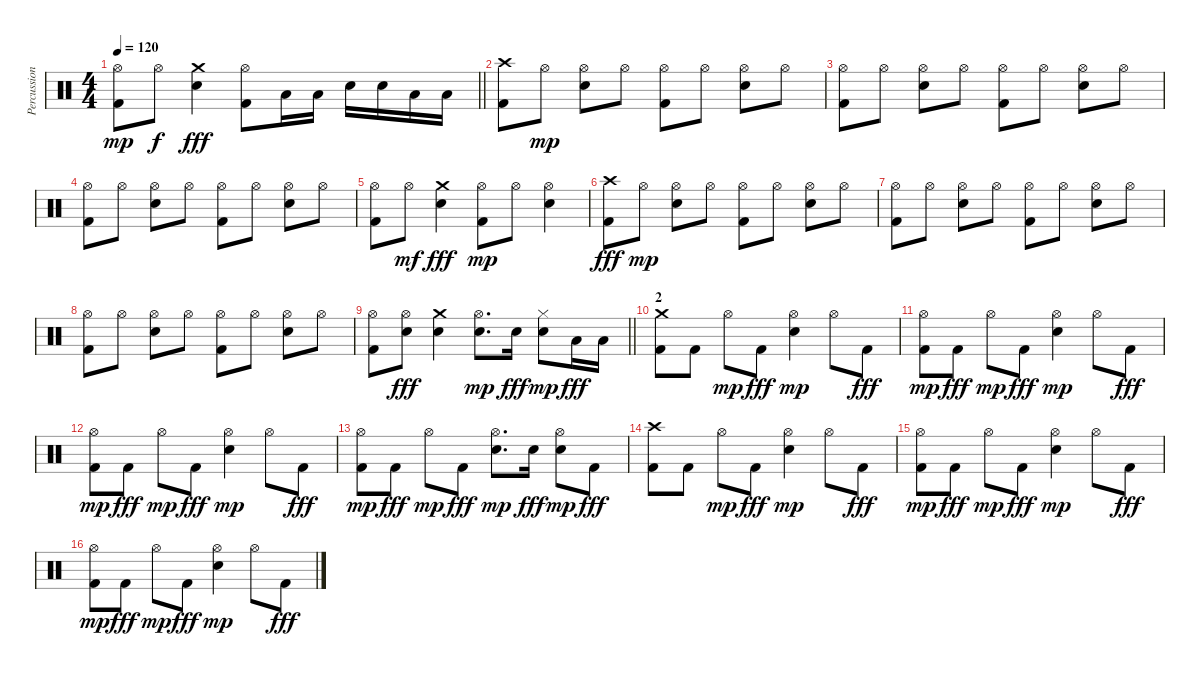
\track ("Percussions" "Percussion") {instrument percussion}
\staff {score}
\articulation defaults
\ts (4 4)
\tempo 120
\clef neutral
\barLineRight lightlight
\ks c
("Kick (hit) 2" "Hi-Hat (open)").8{dy mp} "Hi-Hat (open)".8{dy f} ("Electric Snare (hit)" "Crash medium (hit)").4{dy fff} ("Kick (hit) 2" "Hi-Hat (open)").8 "Low Tom (hit)".16 "Low Tom (hit)".16 "Electric Snare (hit)".16 "Electric Snare (hit)".16 "Low Tom (hit)".16 "Low Tom (hit)".16 |
("Kick (hit) 2" "Crash high (hit)").8 "Hi-Hat (open)".8{dy mp} ("Electric Snare (hit)" "Hi-Hat (open)").8 "Hi-Hat (open)".8 ("Kick (hit) 2" "Hi-Hat (open)").8 "Hi-Hat (open)".8 ("Electric Snare (hit)" "Hi-Hat (open)").8 "Hi-Hat (open)".8 |
("Kick (hit) 2" "Hi-Hat (open)").8 "Hi-Hat (open)".8 ("Electric Snare (hit)" "Hi-Hat (open)").8 "Hi-Hat (open)".8 ("Kick (hit) 2" "Hi-Hat (open)").8 "Hi-Hat (open)".8 ("Electric Snare (hit)" "Hi-Hat (open)").8 "Hi-Hat (open)".8 |
("Kick (hit) 2" "Hi-Hat (open)").8 "Hi-Hat (open)".8 ("Electric Snare (hit)" "Hi-Hat (open)").8 "Hi-Hat (open)".8 ("Kick (hit) 2" "Hi-Hat (open)").8 "Hi-Hat (open)".8 ("Electric Snare (hit)" "Hi-Hat (open)").8 "Hi-Hat (open)".8 |
("Kick (hit) 2" "Hi-Hat (open)").8 "Hi-Hat (open)".8{dy mf} ("Electric Snare (hit)" "Crash medium (hit)").4{dy fff} ("Kick (hit) 2" "Hi-Hat (open)").8{dy mp} "Hi-Hat (open)".8 ("Electric Snare (hit)" "Hi-Hat (open)").4 |
("Kick (hit) 2" "Crash high (hit)").8{dy fff} "Hi-Hat (open)".8{dy mp} ("Electric Snare (hit)" "Hi-Hat (open)").8 "Hi-Hat (open)".8 ("Kick (hit) 2" "Hi-Hat (open)").8 "Hi-Hat (open)".8 ("Electric Snare (hit)" "Hi-Hat (open)").8 "Hi-Hat (open)".8 |
("Kick (hit) 2" "Hi-Hat (open)").8 "Hi-Hat (open)".8 ("Electric Snare (hit)" "Hi-Hat (open)").8 "Hi-Hat (open)".8 ("Kick (hit) 2" "Hi-Hat (open)").8 "Hi-Hat (open)".8 ("Electric Snare (hit)" "Hi-Hat (open)").8 "Hi-Hat (open)".8 |
("Kick (hit) 2" "Hi-Hat (open)").8 "Hi-Hat (open)".8 ("Electric Snare (hit)" "Hi-Hat (open)").8 "Hi-Hat (open)".8 ("Kick (hit) 2" "Hi-Hat (open)").8 "Hi-Hat (open)".8 ("Electric Snare (hit)" "Hi-Hat (open)").8 "Hi-Hat (open)".8 |
\barLineRight lightlight
("Kick (hit) 2" "Hi-Hat (open)").8 ("Electric Snare (hit)" "Hi-Hat (open)").8{dy fff} ("Electric Snare (hit)" "Crash medium (hit)").4 ("Electric Snare (hit)" "Hi-Hat (open)").8{d dy mp} "Electric Snare (hit)".16{dy fff} ("Electric Snare (hit)" "Hi-Hat (closed)").8{dy mp} "Low Tom (hit)".16{dy fff} "Low Tom (hit)".16 |
\section ("" "2")
("Kick (hit) 2" "Crash medium (hit)").8 "Kick (hit) 2".8 "Hi-Hat (open)".8{dy mp} "Kick (hit) 2".8{dy fff} ("Electric Snare (hit)" "Hi-Hat (open)").4{dy mp} "Hi-Hat (open)".8 "Kick (hit) 2".8{dy fff} |
("Kick (hit) 2" "Hi-Hat (open)").8{dy mp} "Kick (hit) 2".8{dy fff} "Hi-Hat (open)".8{dy mp} "Kick (hit) 2".8{dy fff} ("Electric Snare (hit)" "Hi-Hat (open)").4{dy mp} "Hi-Hat (open)".8 "Kick (hit) 2".8{dy fff} |
("Kick (hit) 2" "Hi-Hat (open)").8{dy mp} "Kick (hit) 2".8{dy fff} "Hi-Hat (open)".8{dy mp} "Kick (hit) 2".8{dy fff} ("Electric Snare (hit)" "Hi-Hat (open)").4{dy mp} "Hi-Hat (open)".8 "Kick (hit) 2".8{dy fff} |
("Kick (hit) 2" "Hi-Hat (open)").8{dy mp} "Kick (hit) 2".8{dy fff} "Hi-Hat (open)".8{dy mp} "Kick (hit) 2".8{dy fff} ("Electric Snare (hit)" "Hi-Hat (open)").8{d dy mp} "Electric Snare (hit)".16{dy fff} ("Electric Snare (hit)" "Hi-Hat (open)").8{dy mp} "Kick (hit) 2".8{dy fff} |
("Kick (hit) 2" "Crash high (hit)").8 "Kick (hit) 2".8 "Hi-Hat (open)".8{dy mp} "Kick (hit) 2".8{dy fff} ("Electric Snare (hit)" "Hi-Hat (open)").4{dy mp} "Hi-Hat (open)".8 "Kick (hit) 2".8{dy fff} |
("Kick (hit) 2" "Hi-Hat (open)").8{dy mp} "Kick (hit) 2".8{dy fff} "Hi-Hat (open)".8{dy mp} "Kick (hit) 2".8{dy fff} ("Electric Snare (hit)" "Hi-Hat (open)").4{dy mp} "Hi-Hat (open)".8 "Kick (hit) 2".8{dy fff} |
("Kick (hit) 2" "Hi-Hat (open)").8{dy mp} "Kick (hit) 2".8{dy fff} "Hi-Hat (open)".8{dy mp} "Kick (hit) 2".8{dy fff} ("Electric Snare (hit)" "Hi-Hat (open)").4{dy mp} "Hi-Hat (open)".8 "Kick (hit) 2".8{dy fff}
